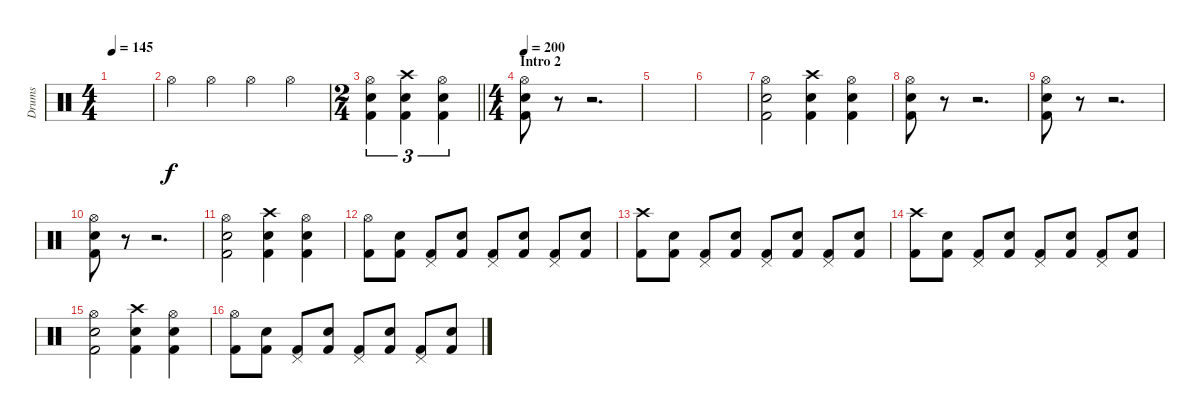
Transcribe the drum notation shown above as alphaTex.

\track ("Drums" "Drums") {instrument percussion}
\staff {score}
\articulation defaults
\ts (4 4)
\tempo 145
\clef neutral
\ks c
|
"Hi-Hat (open)".4 "Hi-Hat (open)".4 "Hi-Hat (open)".4 "Hi-Hat (open)".4 |
\ts (2 4)
\barLineRight lightlight
("Hi-Hat (open)" "Snare (hit) 2" "Kick (hit) 2").4{tu (3 2)} ("Crash high (hit)" "Snare (hit) 2" "Kick (hit) 2").4{tu (3 2)} ("Hi-Hat (open)" "Snare (hit) 2" "Kick (hit) 2").4{tu (3 2)} |
\ts (4 4)
\section ("" "Intro 2")
\tempo 200
("Hi-Hat (open)" "Snare (hit) 2" "Kick (hit) 2").8 r.8 r.2{d} |
|
|
("Hi-Hat (open)" "Snare (hit) 2" "Kick (hit) 2").2 ("Crash high (hit)" "Snare (hit) 2" "Kick (hit) 2").4 ("Hi-Hat (open)" "Snare (hit) 2" "Kick (hit) 2").4 |
("Hi-Hat (open)" "Snare (hit) 2" "Kick (hit) 2").8 r.8 r.2{d} |
("Hi-Hat (open)" "Snare (hit) 2" "Kick (hit) 2").8 r.8 r.2{d} |
("Hi-Hat (open)" "Snare (hit) 2" "Kick (hit) 2").8 r.8 r.2{d} |
("Hi-Hat (open)" "Snare (hit) 2" "Kick (hit) 2").2 ("Crash high (hit)" "Snare (hit) 2" "Kick (hit) 2").4 ("Hi-Hat (open)" "Snare (hit) 2" "Kick (hit) 2").4 |
("Hi-Hat (open)" "Kick (hit) 2").8 ("Snare (hit) 2" "Kick (hit) 2").8 ("Pedal Hi-Hat (hit)" "Kick (hit) 2").8 ("Snare (hit) 2" "Kick (hit) 2").8 ("Pedal Hi-Hat (hit)" "Kick (hit) 2").8 ("Snare (hit) 2" "Kick (hit) 2").8 ("Pedal Hi-Hat (hit)" "Kick (hit) 2").8 ("Snare (hit) 2" "Kick (hit) 2").8 |
("Crash high (hit)" "Kick (hit) 2").8 ("Snare (hit) 2" "Kick (hit) 2").8 ("Pedal Hi-Hat (hit)" "Kick (hit) 2").8 ("Snare (hit) 2" "Kick (hit) 2").8 ("Pedal Hi-Hat (hit)" "Kick (hit) 2").8 ("Snare (hit) 2" "Kick (hit) 2").8 ("Pedal Hi-Hat (hit)" "Kick (hit) 2").8 ("Snare (hit) 2" "Kick (hit) 2").8 |
("Crash high (hit)" "Kick (hit) 2").8 ("Snare (hit) 2" "Kick (hit) 2").8 ("Pedal Hi-Hat (hit)" "Kick (hit) 2").8 ("Snare (hit) 2" "Kick (hit) 2").8 ("Pedal Hi-Hat (hit)" "Kick (hit) 2").8 ("Snare (hit) 2" "Kick (hit) 2").8 ("Pedal Hi-Hat (hit)" "Kick (hit) 2").8 ("Snare (hit) 2" "Kick (hit) 2").8 |
("Hi-Hat (open)" "Snare (hit) 2" "Kick (hit) 2").2 ("Crash high (hit)" "Snare (hit) 2" "Kick (hit) 2").4 ("Hi-Hat (open)" "Snare (hit) 2" "Kick (hit) 2").4 |
("Hi-Hat (open)" "Kick (hit) 2").8 ("Snare (hit) 2" "Kick (hit) 2").8 ("Pedal Hi-Hat (hit)" "Kick (hit) 2").8 ("Snare (hit) 2" "Kick (hit) 2").8 ("Pedal Hi-Hat (hit)" "Kick (hit) 2").8 ("Snare (hit) 2" "Kick (hit) 2").8 ("Pedal Hi-Hat (hit)" "Kick (hit) 2").8 ("Snare (hit) 2" "Kick (hit) 2").8
